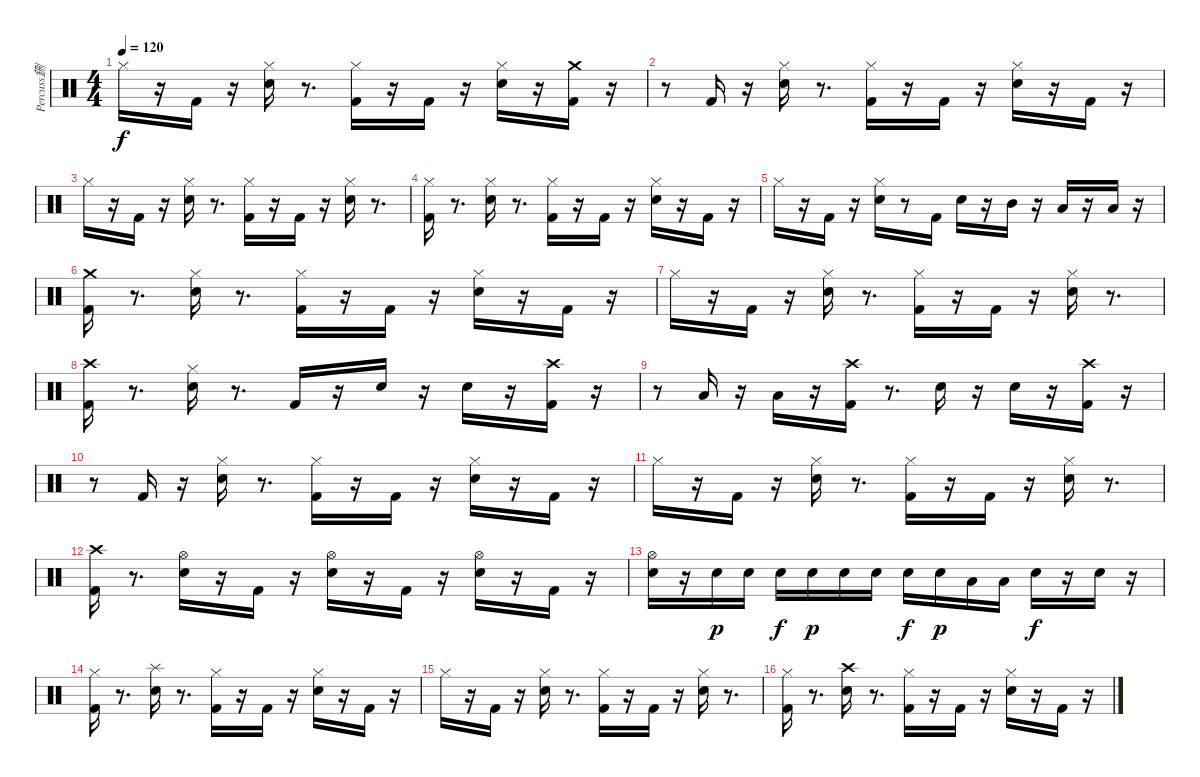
\track ("Percuss鉶" "Percuss鉶") {instrument percussion}
\staff {score}
\articulation defaults
\ts (4 4)
\tempo 120
\clef neutral
\ks c "Hi-Hat (closed)".16{dy f}
r.16 "Kick (hit) 2".16 r.16 ("Hi-Hat (closed)" "Snare (hit) 2").16 r.8{d} ("Hi-Hat (closed)" "Kick (hit) 2").16 r.16 "Kick (hit) 2".16 r.16 ("Hi-Hat (closed)" "Snare (hit) 2").16 r.16 ("Kick (hit) 2" "Crash medium (hit)").16 r.16 |
r.8 "Kick (hit) 2".16 r.16 ("Hi-Hat (closed)" "Snare (hit) 2").16 r.8{d} ("Hi-Hat (closed)" "Kick (hit) 2").16 r.16 "Kick (hit) 2".16 r.16 ("Hi-Hat (closed)" "Snare (hit) 2").16 r.16 "Kick (hit) 2".16 r.16 |
"Hi-Hat (closed)".16 r.16 "Kick (hit) 2".16 r.16 ("Hi-Hat (closed)" "Snare (hit) 2").16 r.8{d} ("Hi-Hat (closed)" "Kick (hit) 2").16 r.16 "Kick (hit) 2".16 r.16 ("Hi-Hat (closed)" "Snare (hit) 2").16 r.8{d} |
("Hi-Hat (closed)" "Kick (hit) 2").16 r.8{d} ("Hi-Hat (closed)" "Snare (hit) 2").16 r.8{d} ("Hi-Hat (closed)" "Kick (hit) 2").16 r.16 "Kick (hit) 2".16 r.16 ("Hi-Hat (closed)" "Snare (hit) 2").16 r.16 "Kick (hit) 2".16 r.16 |
"Hi-Hat (closed)".16 r.16 "Kick (hit) 2".16 r.16 ("Hi-Hat (closed)" "Snare (hit) 2").16 r.8 "Kick (hit) 2".16 "Snare (hit) 2".16 r.16 "Mid Tom (hit)".16 r.16 "Low Tom (hit)".16 r.16 "Low Tom (hit)".16 r.16 |
("Crash medium (hit)" "Kick (hit) 2").16 r.8{d} ("Hi-Hat (closed)" "Snare (hit) 2").16 r.8{d} ("Hi-Hat (closed)" "Kick (hit) 2").16 r.16 "Kick (hit) 2".16 r.16 ("Hi-Hat (closed)" "Snare (hit) 2").16 r.16 "Kick (hit) 2".16 r.16 |
"Hi-Hat (closed)".16 r.16 "Kick (hit) 2".16 r.16 ("Hi-Hat (closed)" "Snare (hit) 2").16 r.8{d} ("Hi-Hat (closed)" "Kick (hit) 2").16 r.16 "Kick (hit) 2".16 r.16 ("Hi-Hat (closed)" "Snare (hit) 2").16 r.8{d} |
("Crash high (hit)" "Kick (hit) 2").16 r.8{d} ("Hi-Hat (closed)" "Snare (hit) 2").16 r.8{d} "Kick (hit) 2".16 r.16 "Snare (hit) 2".16 r.16 "Snare (hit) 2".16 r.16 ("Kick (hit) 2" "Crash high (hit)").16 r.16 |
r.8 "Low Tom (hit)".16 r.16 "Low Tom (hit)".16 r.16 ("Kick (hit) 2" "Crash high (hit)").16 r.8{d} "Snare (hit) 2".16 r.16 "Snare (hit) 2".16 r.16 ("Crash high (hit)" "Kick (hit) 2").16 r.16 |
r.8 "Kick (hit) 2".16 r.16 ("Hi-Hat (closed)" "Snare (hit) 2").16 r.8{d} ("Hi-Hat (closed)" "Kick (hit) 2").16 r.16 "Kick (hit) 2".16 r.16 ("Hi-Hat (closed)" "Snare (hit) 2").16 r.16 "Kick (hit) 2".16 r.16 |
"Hi-Hat (closed)".16 r.16 "Kick (hit) 2".16 r.16 ("Hi-Hat (closed)" "Snare (hit) 2").16 r.8{d} ("Hi-Hat (closed)" "Kick (hit) 2").16 r.16 "Kick (hit) 2".16 r.16 ("Hi-Hat (closed)" "Snare (hit) 2").16 r.8{d} |
("Crash high (hit)" "Kick (hit) 2").16 r.8{d} ("Hi-Hat (open)" "Snare (hit) 2").16 r.16 "Kick (hit) 2".16 r.16 ("Snare (hit) 2" "Hi-Hat (open)").16 r.16 "Kick (hit) 2".16 r.16 ("Hi-Hat (open)" "Snare (hit) 2").16 r.16 "Kick (hit) 2".16 r.16 |
("Snare (hit) 2" "Hi-Hat (open)").16 r.16 "Snare (hit) 2".16{dy p} "Snare (hit) 2".16 "Snare (hit) 2".16{dy f} "Snare (hit) 2".16{dy p} "Snare (hit) 2".16 "Snare (hit) 2".16 "Snare (hit) 2".16{dy f} "Snare (hit) 2".16{dy p} "Low Tom (hit)".16 "Low Tom (hit)".16 "Snare (hit) 2".16{dy f} r.16 "Snare (hit) 2".16 r.16 |
("Hi-Hat (closed)" "Kick (hit) 2").16 r.8{d} ("Splash (hit)" "Snare (hit) 2").16 r.8{d} ("Hi-Hat (closed)" "Kick (hit) 2").16 r.16 "Kick (hit) 2".16 r.16 ("Hi-Hat (closed)" "Snare (hit) 2").16 r.16 "Kick (hit) 2".16 r.16 |
"Hi-Hat (closed)".16 r.16 "Kick (hit) 2".16 r.16 ("Hi-Hat (closed)" "Snare (hit) 2").16 r.8{d} ("Hi-Hat (closed)" "Kick (hit) 2").16 r.16 "Kick (hit) 2".16 r.16 ("Hi-Hat (closed)" "Snare (hit) 2").16 r.8{d} |
("Hi-Hat (closed)" "Kick (hit) 2").16 r.8{d} ("Crash high (hit)" "Snare (hit) 2").16 r.8{d} ("Hi-Hat (closed)" "Kick (hit) 2").16 r.16 "Kick (hit) 2".16 r.16 ("Hi-Hat (closed)" "Snare (hit) 2").16 r.16 "Kick (hit) 2".16 r.16
